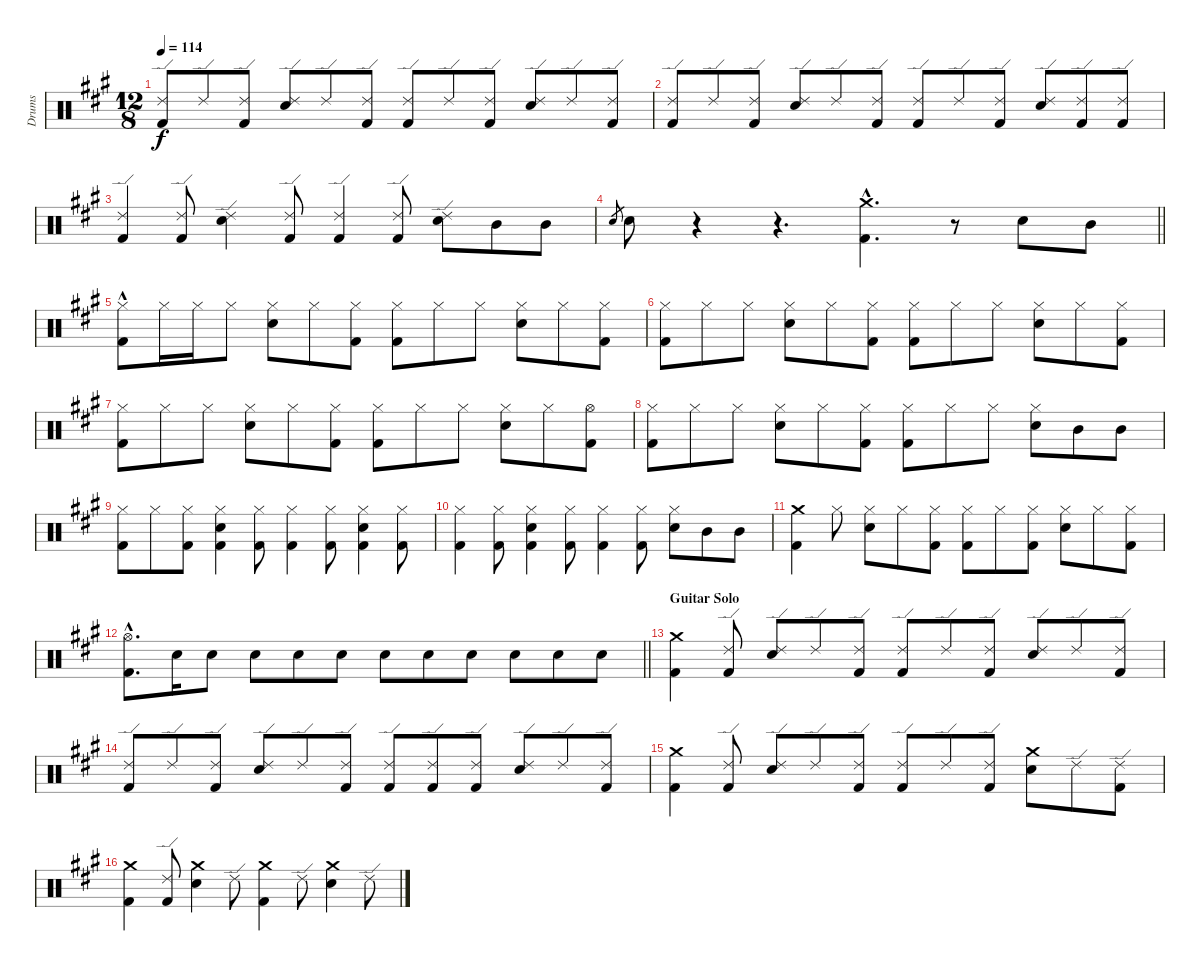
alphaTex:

\track ("Drums" "Drums") {instrument percussion}
\staff {score}
\articulation defaults
\ts (12 8)
\tempo 114
\clef neutral
\ks a
("Ride (edge) 2" "Kick (hit) 2").8{dy f} "Ride (edge) 2".8 ("Ride (edge) 2" "Kick (hit) 2").8 ("Ride (edge) 2" "Snare (hit) 2").8 "Ride (edge) 2".8 ("Ride (edge) 2" "Kick (hit) 2").8 ("Ride (edge) 2" "Kick (hit) 2").8 "Ride (edge) 2".8 ("Ride (edge) 2" "Kick (hit) 2").8 ("Ride (edge) 2" "Snare (hit) 2").8 "Ride (edge) 2".8 ("Ride (edge) 2" "Kick (hit) 2").8 |
("Ride (edge) 2" "Kick (hit) 2").8 "Ride (edge) 2".8 ("Ride (edge) 2" "Kick (hit) 2").8 ("Ride (edge) 2" "Snare (hit) 2").8 "Ride (edge) 2".8 ("Ride (edge) 2" "Kick (hit) 2").8 ("Ride (edge) 2" "Kick (hit) 2").8 "Ride (edge) 2".8 ("Ride (edge) 2" "Kick (hit) 2").8 ("Ride (edge) 2" "Snare (hit) 2").8 ("Ride (edge) 2" "Kick (hit) 2").8 ("Ride (edge) 2" "Kick (hit) 2").8 |
("Ride (edge) 2" "Kick (hit) 2").4 ("Ride (edge) 2" "Kick (hit) 2").8 ("Ride (edge) 2" "Snare (hit) 2").4 ("Ride (edge) 2" "Kick (hit) 2").8 ("Ride (edge) 2" "Kick (hit) 2").4 ("Ride (edge) 2" "Kick (hit) 2").8 ("Ride (edge) 2" "Snare (hit) 2").8 "Mid Tom (hit)".8 "Mid Tom (hit)".8 |
\barLineRight lightlight "Snare (hit) 2".8{gr} "Snare (hit) 2".8
r.4 r.4{d} ("Crash medium (hit)"{hac} "Kick (hit) 2"{hac}).4{d} r.8 "Snare (hit) 2".8 "Mid Tom (hit)".8 |
("Hi-Hat (closed)" "Kick (hit) 2"{hac}).8 "Hi-Hat (closed)".16 "Hi-Hat (closed)".16 "Hi-Hat (closed)".8 ("Hi-Hat (closed)" "Snare (hit) 2").8 "Hi-Hat (closed)".8 ("Hi-Hat (closed)" "Kick (hit) 2").8 ("Hi-Hat (closed)" "Kick (hit) 2").8 "Hi-Hat (closed)".8 "Hi-Hat (closed)".8 ("Hi-Hat (closed)" "Snare (hit) 2").8 "Hi-Hat (closed)".8 ("Hi-Hat (closed)" "Kick (hit) 2").8 |
("Hi-Hat (closed)" "Kick (hit) 2").8 "Hi-Hat (closed)".8 "Hi-Hat (closed)".8 ("Hi-Hat (closed)" "Snare (hit) 2").8 "Hi-Hat (closed)".8 ("Hi-Hat (closed)" "Kick (hit) 2").8 ("Hi-Hat (closed)" "Kick (hit) 2").8 "Hi-Hat (closed)".8 "Hi-Hat (closed)".8 ("Hi-Hat (closed)" "Snare (hit) 2").8 "Hi-Hat (closed)".8 ("Hi-Hat (closed)" "Kick (hit) 2").8 |
("Hi-Hat (closed)" "Kick (hit) 2").8 "Hi-Hat (closed)".8 "Hi-Hat (closed)".8 ("Hi-Hat (closed)" "Snare (hit) 2").8 "Hi-Hat (closed)".8 ("Hi-Hat (closed)" "Kick (hit) 2").8 ("Hi-Hat (closed)" "Kick (hit) 2").8 "Hi-Hat (closed)".8 "Hi-Hat (closed)".8 ("Hi-Hat (closed)" "Snare (hit) 2").8 "Hi-Hat (closed)".8 ("Hi-Hat (open)" "Kick (hit) 2").8 |
("Hi-Hat (closed)" "Kick (hit) 2").8 "Hi-Hat (closed)".8 "Hi-Hat (closed)".8 ("Hi-Hat (closed)" "Snare (hit) 2").8 "Hi-Hat (closed)".8 ("Hi-Hat (closed)" "Kick (hit) 2").8 ("Hi-Hat (closed)" "Kick (hit) 2").8 "Hi-Hat (closed)".8 "Hi-Hat (closed)".8 ("Hi-Hat (closed)" "Snare (hit) 2").8 "Mid Tom (hit)".8 "Mid Tom (hit)".8 |
("Hi-Hat (closed)" "Kick (hit) 2").8 "Hi-Hat (closed)".8 ("Hi-Hat (closed)" "Kick (hit) 2").8 ("Hi-Hat (closed)" "Snare (hit) 2" "Kick (hit) 2").4 ("Hi-Hat (closed)" "Kick (hit) 2").8 ("Hi-Hat (closed)" "Kick (hit) 2").4 ("Hi-Hat (closed)" "Kick (hit) 2").8 ("Hi-Hat (closed)" "Snare (hit) 2" "Kick (hit) 2").4 ("Hi-Hat (closed)" "Kick (hit) 2").8 |
("Hi-Hat (closed)" "Kick (hit) 2").4 ("Hi-Hat (closed)" "Kick (hit) 2").8 ("Hi-Hat (closed)" "Snare (hit) 2" "Kick (hit) 2").4 ("Hi-Hat (closed)" "Kick (hit) 2").8 ("Hi-Hat (closed)" "Kick (hit) 2").4 ("Hi-Hat (closed)" "Kick (hit) 2").8 ("Hi-Hat (closed)" "Snare (hit) 2").8 "Mid Tom (hit)".8 "Mid Tom (hit)".8 |
("Crash medium (hit)" "Kick (hit) 2").4 "Hi-Hat (closed)".8 ("Hi-Hat (closed)" "Snare (hit) 2").8 "Hi-Hat (closed)".8 ("Hi-Hat (closed)" "Kick (hit) 2").8 ("Hi-Hat (closed)" "Kick (hit) 2").8 "Hi-Hat (closed)".8 ("Hi-Hat (closed)" "Kick (hit) 2").8 ("Hi-Hat (closed)" "Snare (hit) 2").8 "Hi-Hat (closed)".8 ("Hi-Hat (closed)" "Kick (hit) 2").8 |
\barLineRight lightlight
("Hi-Hat (open)"{hac} "Kick (hit) 2"{hac}).8{d} "Snare (hit) 2".16 "Snare (hit) 2".8 "Snare (hit) 2".8 "Snare (hit) 2".8 "Snare (hit) 2".8 "Snare (hit) 2".8 "Snare (hit) 2".8 "Snare (hit) 2".8 "Snare (hit) 2".8 "Snare (hit) 2".8 "Snare (hit) 2".8 |
\section ("" "Guitar Solo")
("Crash medium (hit)" "Kick (hit) 2").4 ("Ride (edge) 2" "Kick (hit) 2").8 ("Ride (edge) 2" "Snare (hit) 2").8 "Ride (edge) 2".8 ("Ride (edge) 2" "Kick (hit) 2").8 ("Ride (edge) 2" "Kick (hit) 2").8 "Ride (edge) 2".8 ("Ride (edge) 2" "Kick (hit) 2").8 ("Ride (edge) 2" "Snare (hit) 2").8 "Ride (edge) 2".8 ("Ride (edge) 2" "Kick (hit) 2").8 |
("Ride (edge) 2" "Kick (hit) 2").8 "Ride (edge) 2".8 ("Ride (edge) 2" "Kick (hit) 2").8 ("Ride (edge) 2" "Snare (hit) 2").8 "Ride (edge) 2".8 ("Ride (edge) 2" "Kick (hit) 2").8 ("Ride (edge) 2" "Kick (hit) 2").8 ("Ride (edge) 2" "Kick (hit) 2").8 ("Ride (edge) 2" "Kick (hit) 2").8 ("Ride (edge) 2" "Snare (hit) 2").8 "Ride (edge) 2".8 ("Ride (edge) 2" "Kick (hit) 2").8 |
("Crash medium (hit)" "Kick (hit) 2").4 ("Ride (edge) 2" "Kick (hit) 2").8 ("Ride (edge) 2" "Snare (hit) 2").8 "Ride (edge) 2".8 ("Ride (edge) 2" "Kick (hit) 2").8 ("Ride (edge) 2" "Kick (hit) 2").8 "Ride (edge) 2".8 ("Ride (edge) 2" "Kick (hit) 2").8 ("Crash medium (hit)" "Snare (hit) 2").8 "Ride (edge) 2".8 ("Ride (edge) 2" "Kick (hit) 2").8 |
("Crash medium (hit)" "Kick (hit) 2").4 ("Ride (edge) 2" "Kick (hit) 2").8 ("Crash medium (hit)" "Snare (hit) 2").4 "Ride (edge) 2".8 ("Crash medium (hit)" "Kick (hit) 2").4 "Ride (edge) 2".8 ("Crash medium (hit)" "Snare (hit) 2").4 "Ride (edge) 2".8
